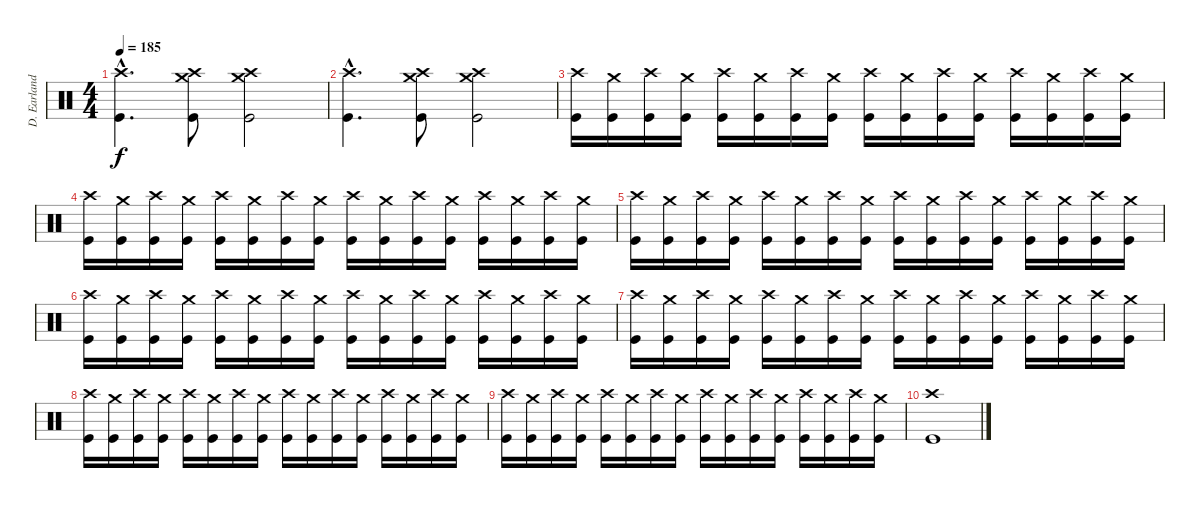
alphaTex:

\track ("D. Earlanddson" "D. Earland") {instrument percussion}
\staff {score}
\articulation defaults
\ts (4 4)
\tempo 185
\clef neutral
\ks c
("Crash high (hit)"{hac} "Kick (hit)"{hac}).4{d dy f} ("Crash high (hit)" "Crash medium (hit)" "Kick (hit)").8 ("Crash high (hit)" "Crash medium (hit)" "Kick (hit)").2 |
("Crash high (hit)"{hac} "Kick (hit)"{hac}).4{d} ("Crash high (hit)" "Crash medium (hit)" "Kick (hit)").8 ("Crash high (hit)" "Crash medium (hit)" "Kick (hit)").2 |
("Crash high (hit)" "Kick (hit)").16 ("Crash medium (hit)" "Kick (hit)").16 ("Crash high (hit)" "Kick (hit)").16 ("Crash medium (hit)" "Kick (hit)").16 ("Crash high (hit)" "Kick (hit)").16 ("Crash medium (hit)" "Kick (hit)").16 ("Crash high (hit)" "Kick (hit)").16 ("Crash medium (hit)" "Kick (hit)").16 ("Crash high (hit)" "Kick (hit)").16 ("Crash medium (hit)" "Kick (hit)").16 ("Crash high (hit)" "Kick (hit)").16 ("Crash medium (hit)" "Kick (hit)").16 ("Crash high (hit)" "Kick (hit)").16 ("Crash medium (hit)" "Kick (hit)").16 ("Crash high (hit)" "Kick (hit)").16 ("Crash medium (hit)" "Kick (hit)").16 |
("Crash high (hit)" "Kick (hit)").16 ("Crash medium (hit)" "Kick (hit)").16 ("Crash high (hit)" "Kick (hit)").16 ("Crash medium (hit)" "Kick (hit)").16 ("Crash high (hit)" "Kick (hit)").16 ("Crash medium (hit)" "Kick (hit)").16 ("Crash high (hit)" "Kick (hit)").16 ("Crash medium (hit)" "Kick (hit)").16 ("Crash high (hit)" "Kick (hit)").16 ("Crash medium (hit)" "Kick (hit)").16 ("Crash high (hit)" "Kick (hit)").16 ("Crash medium (hit)" "Kick (hit)").16 ("Crash high (hit)" "Kick (hit)").16 ("Crash medium (hit)" "Kick (hit)").16 ("Crash high (hit)" "Kick (hit)").16 ("Crash medium (hit)" "Kick (hit)").16 |
("Crash high (hit)" "Kick (hit)").16 ("Crash medium (hit)" "Kick (hit)").16 ("Crash high (hit)" "Kick (hit)").16 ("Crash medium (hit)" "Kick (hit)").16 ("Crash high (hit)" "Kick (hit)").16 ("Crash medium (hit)" "Kick (hit)").16 ("Crash high (hit)" "Kick (hit)").16 ("Crash medium (hit)" "Kick (hit)").16 ("Crash high (hit)" "Kick (hit)").16 ("Crash medium (hit)" "Kick (hit)").16 ("Crash high (hit)" "Kick (hit)").16 ("Crash medium (hit)" "Kick (hit)").16 ("Crash high (hit)" "Kick (hit)").16 ("Crash medium (hit)" "Kick (hit)").16 ("Crash high (hit)" "Kick (hit)").16 ("Crash medium (hit)" "Kick (hit)").16 |
("Crash high (hit)" "Kick (hit)").16 ("Crash medium (hit)" "Kick (hit)").16 ("Crash high (hit)" "Kick (hit)").16 ("Crash medium (hit)" "Kick (hit)").16 ("Crash high (hit)" "Kick (hit)").16 ("Crash medium (hit)" "Kick (hit)").16 ("Crash high (hit)" "Kick (hit)").16 ("Crash medium (hit)" "Kick (hit)").16 ("Crash high (hit)" "Kick (hit)").16 ("Crash medium (hit)" "Kick (hit)").16 ("Crash high (hit)" "Kick (hit)").16 ("Crash medium (hit)" "Kick (hit)").16 ("Crash high (hit)" "Kick (hit)").16 ("Crash medium (hit)" "Kick (hit)").16 ("Crash high (hit)" "Kick (hit)").16 ("Crash medium (hit)" "Kick (hit)").16 |
("Crash high (hit)" "Kick (hit)").16 ("Crash medium (hit)" "Kick (hit)").16 ("Crash high (hit)" "Kick (hit)").16 ("Crash medium (hit)" "Kick (hit)").16 ("Crash high (hit)" "Kick (hit)").16 ("Crash medium (hit)" "Kick (hit)").16 ("Crash high (hit)" "Kick (hit)").16 ("Crash medium (hit)" "Kick (hit)").16 ("Crash high (hit)" "Kick (hit)").16 ("Crash medium (hit)" "Kick (hit)").16 ("Crash high (hit)" "Kick (hit)").16 ("Crash medium (hit)" "Kick (hit)").16 ("Crash high (hit)" "Kick (hit)").16 ("Crash medium (hit)" "Kick (hit)").16 ("Crash high (hit)" "Kick (hit)").16 ("Crash medium (hit)" "Kick (hit)").16 |
("Crash high (hit)" "Kick (hit)").16 ("Crash medium (hit)" "Kick (hit)").16 ("Crash high (hit)" "Kick (hit)").16 ("Crash medium (hit)" "Kick (hit)").16 ("Crash high (hit)" "Kick (hit)").16 ("Crash medium (hit)" "Kick (hit)").16 ("Crash high (hit)" "Kick (hit)").16 ("Crash medium (hit)" "Kick (hit)").16 ("Crash high (hit)" "Kick (hit)").16 ("Crash medium (hit)" "Kick (hit)").16 ("Crash high (hit)" "Kick (hit)").16 ("Crash medium (hit)" "Kick (hit)").16 ("Crash high (hit)" "Kick (hit)").16 ("Crash medium (hit)" "Kick (hit)").16 ("Crash high (hit)" "Kick (hit)").16 ("Crash medium (hit)" "Kick (hit)").16 |
("Crash high (hit)" "Kick (hit)").16 ("Crash medium (hit)" "Kick (hit)").16 ("Crash high (hit)" "Kick (hit)").16 ("Crash medium (hit)" "Kick (hit)").16 ("Crash high (hit)" "Kick (hit)").16 ("Crash medium (hit)" "Kick (hit)").16 ("Crash high (hit)" "Kick (hit)").16 ("Crash medium (hit)" "Kick (hit)").16 ("Crash high (hit)" "Kick (hit)").16 ("Crash medium (hit)" "Kick (hit)").16 ("Crash high (hit)" "Kick (hit)").16 ("Crash medium (hit)" "Kick (hit)").16 ("Crash high (hit)" "Kick (hit)").16 ("Crash medium (hit)" "Kick (hit)").16 ("Crash high (hit)" "Kick (hit)").16 ("Crash medium (hit)" "Kick (hit)").16 |
("Crash high (hit)" "Kick (hit)").1
